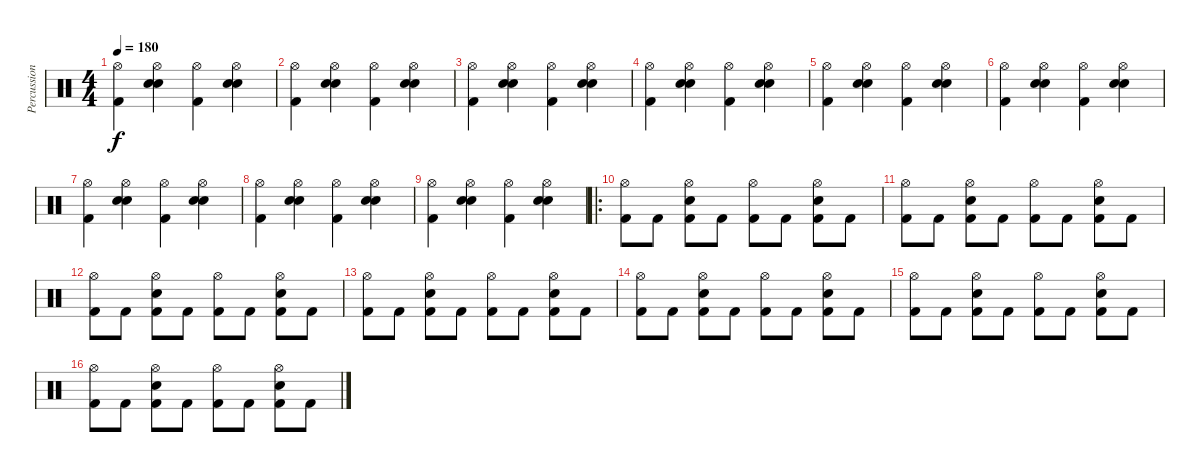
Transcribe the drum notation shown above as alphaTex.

\track ("Percussion" "Percussion") {instrument percussion}
\staff {score}
\articulation defaults
\ts (4 4)
\tempo 180
\clef neutral
\ks c
("Hi-Hat (open)" "Kick (hit) 2").4{dy f} ("Hi-Hat (open)" "Snare (hit) 2" "Snare (hit) 2").4 ("Hi-Hat (open)" "Kick (hit) 2").4 ("Hi-Hat (open)" "Snare (hit) 2" "Snare (hit) 2").4 |
("Hi-Hat (open)" "Kick (hit) 2").4 ("Hi-Hat (open)" "Snare (hit) 2" "Snare (hit) 2").4 ("Hi-Hat (open)" "Kick (hit) 2").4 ("Hi-Hat (open)" "Snare (hit) 2" "Snare (hit) 2").4 |
("Hi-Hat (open)" "Kick (hit) 2").4 ("Hi-Hat (open)" "Snare (hit) 2" "Snare (hit) 2").4 ("Hi-Hat (open)" "Kick (hit) 2").4 ("Hi-Hat (open)" "Snare (hit) 2" "Snare (hit) 2").4 |
("Hi-Hat (open)" "Kick (hit) 2").4 ("Hi-Hat (open)" "Snare (hit) 2" "Snare (hit) 2").4 ("Hi-Hat (open)" "Kick (hit) 2").4 ("Hi-Hat (open)" "Snare (hit) 2" "Snare (hit) 2").4 |
("Hi-Hat (open)" "Kick (hit) 2").4 ("Hi-Hat (open)" "Snare (hit) 2" "Snare (hit) 2").4 ("Hi-Hat (open)" "Kick (hit) 2").4 ("Hi-Hat (open)" "Snare (hit) 2" "Snare (hit) 2").4 |
("Hi-Hat (open)" "Kick (hit) 2").4 ("Hi-Hat (open)" "Snare (hit) 2" "Snare (hit) 2").4 ("Hi-Hat (open)" "Kick (hit) 2").4 ("Hi-Hat (open)" "Snare (hit) 2" "Snare (hit) 2").4 |
("Hi-Hat (open)" "Kick (hit) 2").4 ("Hi-Hat (open)" "Snare (hit) 2" "Snare (hit) 2").4 ("Hi-Hat (open)" "Kick (hit) 2").4 ("Hi-Hat (open)" "Snare (hit) 2" "Snare (hit) 2").4 |
("Hi-Hat (open)" "Kick (hit) 2").4 ("Hi-Hat (open)" "Snare (hit) 2" "Snare (hit) 2").4 ("Hi-Hat (open)" "Kick (hit) 2").4 ("Hi-Hat (open)" "Snare (hit) 2" "Snare (hit) 2").4 |
("Hi-Hat (open)" "Kick (hit) 2").4 ("Hi-Hat (open)" "Snare (hit) 2" "Snare (hit) 2").4 ("Hi-Hat (open)" "Kick (hit) 2").4 ("Hi-Hat (open)" "Snare (hit) 2" "Snare (hit) 2").4 |
\ro
("Hi-Hat (open)" "Kick (hit) 2").8 "Kick (hit) 2".8 ("Hi-Hat (open)" "Snare (hit) 2" "Kick (hit) 2").8 "Kick (hit) 2".8 ("Hi-Hat (open)" "Kick (hit) 2").8 "Kick (hit) 2".8 ("Hi-Hat (open)" "Snare (hit) 2" "Kick (hit) 2").8 "Kick (hit) 2".8 |
("Hi-Hat (open)" "Kick (hit) 2").8 "Kick (hit) 2".8 ("Hi-Hat (open)" "Snare (hit) 2" "Kick (hit) 2").8 "Kick (hit) 2".8 ("Hi-Hat (open)" "Kick (hit) 2").8 "Kick (hit) 2".8 ("Hi-Hat (open)" "Snare (hit) 2" "Kick (hit) 2").8 "Kick (hit) 2".8 |
("Hi-Hat (open)" "Kick (hit) 2").8 "Kick (hit) 2".8 ("Hi-Hat (open)" "Snare (hit) 2" "Kick (hit) 2").8 "Kick (hit) 2".8 ("Hi-Hat (open)" "Kick (hit) 2").8 "Kick (hit) 2".8 ("Hi-Hat (open)" "Snare (hit) 2" "Kick (hit) 2").8 "Kick (hit) 2".8 |
("Hi-Hat (open)" "Kick (hit) 2").8 "Kick (hit) 2".8 ("Hi-Hat (open)" "Snare (hit) 2" "Kick (hit) 2").8 "Kick (hit) 2".8 ("Hi-Hat (open)" "Kick (hit) 2").8 "Kick (hit) 2".8 ("Hi-Hat (open)" "Snare (hit) 2" "Kick (hit) 2").8 "Kick (hit) 2".8 |
("Hi-Hat (open)" "Kick (hit) 2").8 "Kick (hit) 2".8 ("Hi-Hat (open)" "Snare (hit) 2" "Kick (hit) 2").8 "Kick (hit) 2".8 ("Hi-Hat (open)" "Kick (hit) 2").8 "Kick (hit) 2".8 ("Hi-Hat (open)" "Snare (hit) 2" "Kick (hit) 2").8 "Kick (hit) 2".8 |
("Hi-Hat (open)" "Kick (hit) 2").8 "Kick (hit) 2".8 ("Hi-Hat (open)" "Snare (hit) 2" "Kick (hit) 2").8 "Kick (hit) 2".8 ("Hi-Hat (open)" "Kick (hit) 2").8 "Kick (hit) 2".8 ("Hi-Hat (open)" "Snare (hit) 2" "Kick (hit) 2").8 "Kick (hit) 2".8 |
("Hi-Hat (open)" "Kick (hit) 2").8 "Kick (hit) 2".8 ("Hi-Hat (open)" "Snare (hit) 2" "Kick (hit) 2").8 "Kick (hit) 2".8 ("Hi-Hat (open)" "Kick (hit) 2").8 "Kick (hit) 2".8 ("Hi-Hat (open)" "Snare (hit) 2" "Kick (hit) 2").8 "Kick (hit) 2".8
